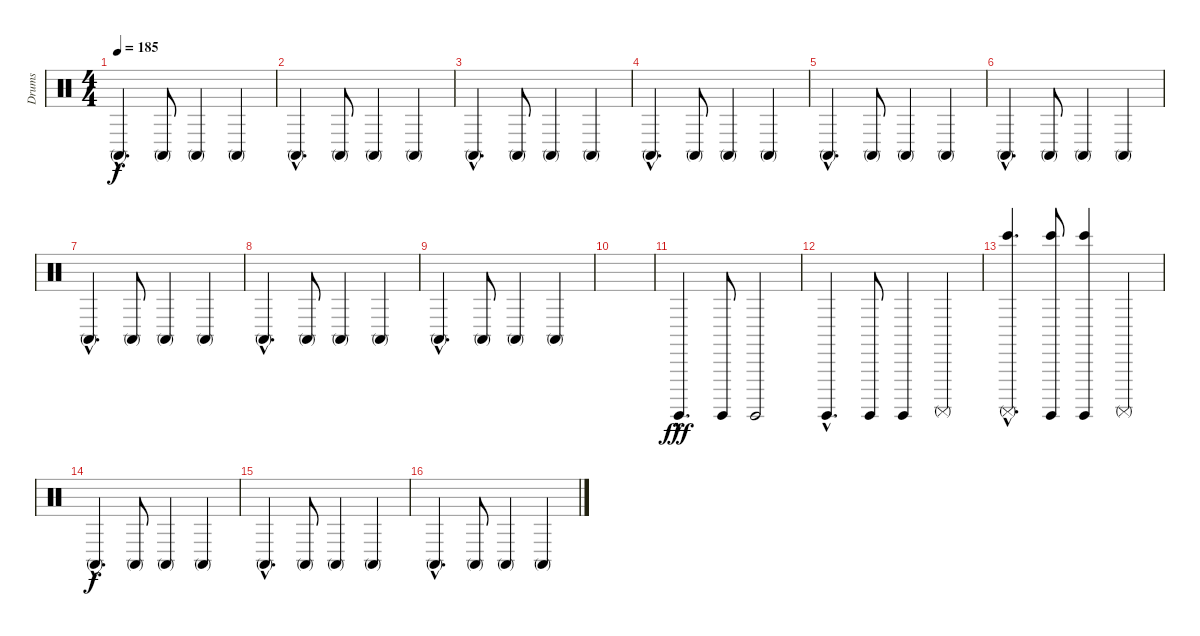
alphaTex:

\track ("Drums" "Drums") {instrument percussion}
\staff {score}
\articulation defaults
\ts (4 4)
\tempo 185
\clef neutral
\ks c "Conga high (mute)"{hac}.4{d dy f} "Conga high (mute)".8 "Conga high (mute)".4 "Conga high (mute)".4
|
"Conga high (mute)"{hac}.4{d} "Conga high (mute)".8 "Conga high (mute)".4 "Conga high (mute)".4 |
"Conga high (mute)"{hac}.4{d} "Conga high (mute)".8 "Conga high (mute)".4 "Conga high (mute)".4 |
"Conga high (mute)"{hac}.4{d} "Conga high (mute)".8 "Conga high (mute)".4 "Conga high (mute)".4 |
"Conga high (mute)"{hac}.4{d} "Conga high (mute)".8 "Conga high (mute)".4 "Conga high (mute)".4 |
"Conga high (mute)"{hac}.4{d} "Conga high (mute)".8 "Conga high (mute)".4 "Conga high (mute)".4 |
"Conga high (mute)"{hac}.4{d} "Conga high (mute)".8 "Conga high (mute)".4 "Conga high (mute)".4 |
"Conga high (mute)"{hac}.4{d} "Conga high (mute)".8 "Conga high (mute)".4 "Conga high (mute)".4 |
"Conga high (mute)"{hac}.4{d} "Conga high (mute)".8 "Conga high (mute)".4 "Conga high (mute)".4 |
|
"Surdo (hit)"{hac}.4{d dy fff} "Surdo (hit)".8 "Surdo (hit)".2 |
"Surdo (hit)"{hac}.4{d} "Surdo (hit)".8 "Surdo (hit)".4 "Surdo (mute)".4 |
("Surdo (mute)"{hac} "Bongo High (hit)"{hac}).4{d} ("Surdo (hit)" "Bongo High (hit)").8 ("Surdo (hit)" "Bongo High (hit)").4 "Surdo (mute)".4 |
"Conga high (mute)"{hac}.4{d dy f} "Conga high (mute)".8 "Conga high (mute)".4 "Conga high (mute)".4 |
"Conga high (mute)"{hac}.4{d} "Conga high (mute)".8 "Conga high (mute)".4 "Conga high (mute)".4 |
"Conga high (mute)"{hac}.4{d} "Conga high (mute)".8 "Conga high (mute)".4 "Conga high (mute)".4
